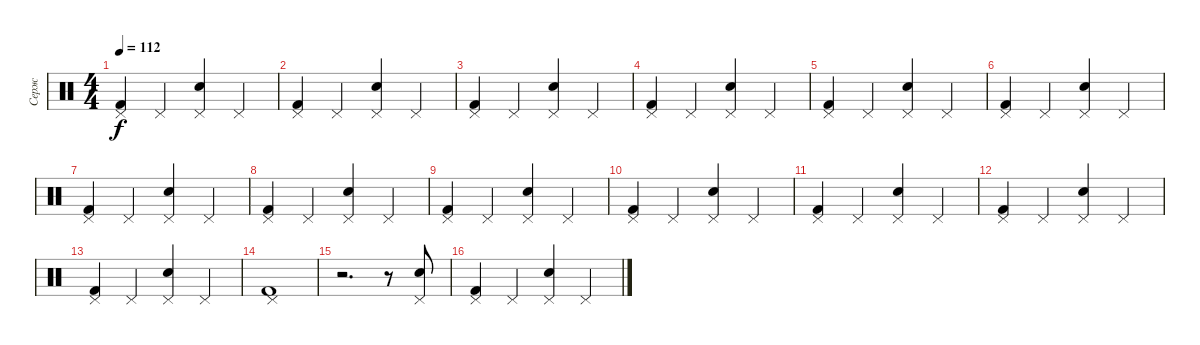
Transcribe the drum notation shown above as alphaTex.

\track ("Серж" "Серж") {instrument percussion}
\staff {score}
\articulation defaults
\ts (4 4)
\tempo 112
\clef neutral
\ks c
("Pedal Hi-Hat (hit)" "Kick (hit) 2").4{dy f} "Pedal Hi-Hat (hit)".4 ("Pedal Hi-Hat (hit)" "Snare (hit) 2").4 "Pedal Hi-Hat (hit)".4 |
("Pedal Hi-Hat (hit)" "Kick (hit) 2").4 "Pedal Hi-Hat (hit)".4 ("Pedal Hi-Hat (hit)" "Snare (hit) 2").4 "Pedal Hi-Hat (hit)".4 |
("Pedal Hi-Hat (hit)" "Kick (hit) 2").4 "Pedal Hi-Hat (hit)".4 ("Pedal Hi-Hat (hit)" "Snare (hit) 2").4 "Pedal Hi-Hat (hit)".4 |
("Pedal Hi-Hat (hit)" "Kick (hit) 2").4 "Pedal Hi-Hat (hit)".4 ("Pedal Hi-Hat (hit)" "Snare (hit) 2").4 "Pedal Hi-Hat (hit)".4 |
("Pedal Hi-Hat (hit)" "Kick (hit) 2").4 "Pedal Hi-Hat (hit)".4 ("Pedal Hi-Hat (hit)" "Snare (hit) 2").4 "Pedal Hi-Hat (hit)".4 |
("Pedal Hi-Hat (hit)" "Kick (hit) 2").4 "Pedal Hi-Hat (hit)".4 ("Pedal Hi-Hat (hit)" "Snare (hit) 2").4 "Pedal Hi-Hat (hit)".4 |
("Pedal Hi-Hat (hit)" "Kick (hit) 2").4 "Pedal Hi-Hat (hit)".4 ("Pedal Hi-Hat (hit)" "Snare (hit) 2").4 "Pedal Hi-Hat (hit)".4 |
("Pedal Hi-Hat (hit)" "Kick (hit) 2").4 "Pedal Hi-Hat (hit)".4 ("Pedal Hi-Hat (hit)" "Snare (hit) 2").4 "Pedal Hi-Hat (hit)".4 |
("Pedal Hi-Hat (hit)" "Kick (hit) 2").4 "Pedal Hi-Hat (hit)".4 ("Pedal Hi-Hat (hit)" "Snare (hit) 2").4 "Pedal Hi-Hat (hit)".4 |
("Pedal Hi-Hat (hit)" "Kick (hit) 2").4 "Pedal Hi-Hat (hit)".4 ("Pedal Hi-Hat (hit)" "Snare (hit) 2").4 "Pedal Hi-Hat (hit)".4 |
("Pedal Hi-Hat (hit)" "Kick (hit) 2").4 "Pedal Hi-Hat (hit)".4 ("Pedal Hi-Hat (hit)" "Snare (hit) 2").4 "Pedal Hi-Hat (hit)".4 |
("Pedal Hi-Hat (hit)" "Kick (hit) 2").4 "Pedal Hi-Hat (hit)".4 ("Pedal Hi-Hat (hit)" "Snare (hit) 2").4 "Pedal Hi-Hat (hit)".4 |
("Pedal Hi-Hat (hit)" "Kick (hit) 2").4 "Pedal Hi-Hat (hit)".4 ("Pedal Hi-Hat (hit)" "Snare (hit) 2").4 "Pedal Hi-Hat (hit)".4 |
("Pedal Hi-Hat (hit)" "Kick (hit) 2").1 |
r.2{d} r.8 ("Pedal Hi-Hat (hit)" "Electric Snare (hit)").8 |
("Pedal Hi-Hat (hit)" "Kick (hit) 2").4 "Pedal Hi-Hat (hit)".4 ("Pedal Hi-Hat (hit)" "Snare (hit) 2").4 "Pedal Hi-Hat (hit)".4
